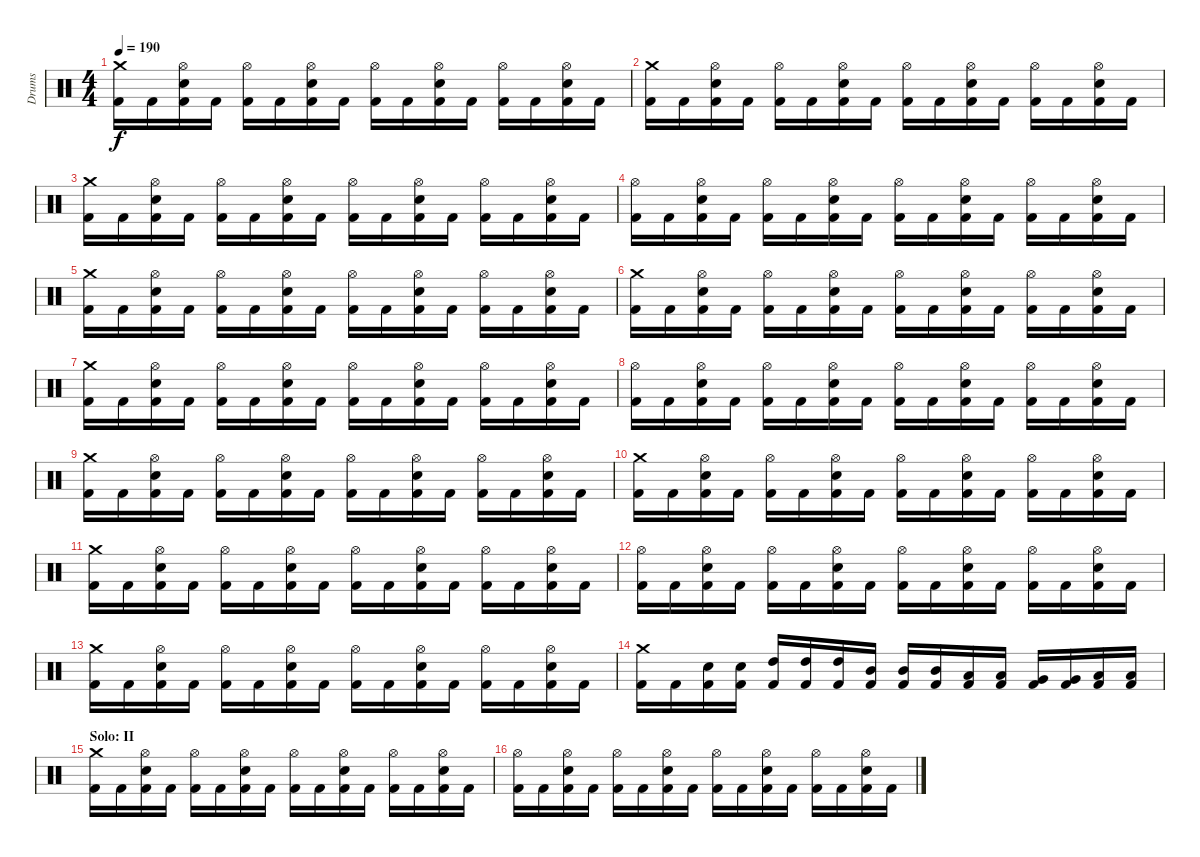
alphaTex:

\track ("Drums" "Drums") {instrument percussion}
\staff {score}
\articulation defaults
\ts (4 4)
\tempo 190
\clef neutral
\ks c
("Crash medium (hit)" "Kick (hit) 2").16{dy f} "Kick (hit) 2".16 ("Hi-Hat (open)" "Snare (hit) 2" "Kick (hit) 2").16 "Kick (hit) 2".16 ("Hi-Hat (open)" "Kick (hit) 2").16 "Kick (hit) 2".16 ("Hi-Hat (open)" "Snare (hit) 2" "Kick (hit) 2").16 "Kick (hit) 2".16 ("Hi-Hat (open)" "Kick (hit) 2").16 "Kick (hit) 2".16 ("Hi-Hat (open)" "Snare (hit) 2" "Kick (hit) 2").16 "Kick (hit) 2".16 ("Hi-Hat (open)" "Kick (hit) 2").16 "Kick (hit) 2".16 ("Hi-Hat (open)" "Snare (hit) 2" "Kick (hit) 2").16 "Kick (hit) 2".16 |
("Crash medium (hit)" "Kick (hit) 2").16 "Kick (hit) 2".16 ("Hi-Hat (open)" "Snare (hit) 2" "Kick (hit) 2").16 "Kick (hit) 2".16 ("Hi-Hat (open)" "Kick (hit) 2").16 "Kick (hit) 2".16 ("Hi-Hat (open)" "Snare (hit) 2" "Kick (hit) 2").16 "Kick (hit) 2".16 ("Hi-Hat (open)" "Kick (hit) 2").16 "Kick (hit) 2".16 ("Hi-Hat (open)" "Snare (hit) 2" "Kick (hit) 2").16 "Kick (hit) 2".16 ("Hi-Hat (open)" "Kick (hit) 2").16 "Kick (hit) 2".16 ("Hi-Hat (open)" "Snare (hit) 2" "Kick (hit) 2").16 "Kick (hit) 2".16 |
("Crash medium (hit)" "Kick (hit) 2").16 "Kick (hit) 2".16 ("Hi-Hat (open)" "Snare (hit) 2" "Kick (hit) 2").16 "Kick (hit) 2".16 ("Hi-Hat (open)" "Kick (hit) 2").16 "Kick (hit) 2".16 ("Hi-Hat (open)" "Snare (hit) 2" "Kick (hit) 2").16 "Kick (hit) 2".16 ("Hi-Hat (open)" "Kick (hit) 2").16 "Kick (hit) 2".16 ("Hi-Hat (open)" "Snare (hit) 2" "Kick (hit) 2").16 "Kick (hit) 2".16 ("Hi-Hat (open)" "Kick (hit) 2").16 "Kick (hit) 2".16 ("Hi-Hat (open)" "Snare (hit) 2" "Kick (hit) 2").16 "Kick (hit) 2".16 |
("Hi-Hat (open)" "Kick (hit) 2").16 "Kick (hit) 2".16 ("Hi-Hat (open)" "Snare (hit) 2" "Kick (hit) 2").16 "Kick (hit) 2".16 ("Hi-Hat (open)" "Kick (hit) 2").16 "Kick (hit) 2".16 ("Hi-Hat (open)" "Snare (hit) 2" "Kick (hit) 2").16 "Kick (hit) 2".16 ("Hi-Hat (open)" "Kick (hit) 2").16 "Kick (hit) 2".16 ("Hi-Hat (open)" "Snare (hit) 2" "Kick (hit) 2").16 "Kick (hit) 2".16 ("Hi-Hat (open)" "Kick (hit) 2").16 "Kick (hit) 2".16 ("Hi-Hat (open)" "Snare (hit) 2" "Kick (hit) 2").16 "Kick (hit) 2".16 |
("Crash medium (hit)" "Kick (hit) 2").16 "Kick (hit) 2".16 ("Hi-Hat (open)" "Snare (hit) 2" "Kick (hit) 2").16 "Kick (hit) 2".16 ("Hi-Hat (open)" "Kick (hit) 2").16 "Kick (hit) 2".16 ("Hi-Hat (open)" "Snare (hit) 2" "Kick (hit) 2").16 "Kick (hit) 2".16 ("Hi-Hat (open)" "Kick (hit) 2").16 "Kick (hit) 2".16 ("Hi-Hat (open)" "Snare (hit) 2" "Kick (hit) 2").16 "Kick (hit) 2".16 ("Hi-Hat (open)" "Kick (hit) 2").16 "Kick (hit) 2".16 ("Hi-Hat (open)" "Snare (hit) 2" "Kick (hit) 2").16 "Kick (hit) 2".16 |
("Crash medium (hit)" "Kick (hit) 2").16 "Kick (hit) 2".16 ("Hi-Hat (open)" "Snare (hit) 2" "Kick (hit) 2").16 "Kick (hit) 2".16 ("Hi-Hat (open)" "Kick (hit) 2").16 "Kick (hit) 2".16 ("Hi-Hat (open)" "Snare (hit) 2" "Kick (hit) 2").16 "Kick (hit) 2".16 ("Hi-Hat (open)" "Kick (hit) 2").16 "Kick (hit) 2".16 ("Hi-Hat (open)" "Snare (hit) 2" "Kick (hit) 2").16 "Kick (hit) 2".16 ("Hi-Hat (open)" "Kick (hit) 2").16 "Kick (hit) 2".16 ("Hi-Hat (open)" "Snare (hit) 2" "Kick (hit) 2").16 "Kick (hit) 2".16 |
("Crash medium (hit)" "Kick (hit) 2").16 "Kick (hit) 2".16 ("Hi-Hat (open)" "Snare (hit) 2" "Kick (hit) 2").16 "Kick (hit) 2".16 ("Hi-Hat (open)" "Kick (hit) 2").16 "Kick (hit) 2".16 ("Hi-Hat (open)" "Snare (hit) 2" "Kick (hit) 2").16 "Kick (hit) 2".16 ("Hi-Hat (open)" "Kick (hit) 2").16 "Kick (hit) 2".16 ("Hi-Hat (open)" "Snare (hit) 2" "Kick (hit) 2").16 "Kick (hit) 2".16 ("Hi-Hat (open)" "Kick (hit) 2").16 "Kick (hit) 2".16 ("Hi-Hat (open)" "Snare (hit) 2" "Kick (hit) 2").16 "Kick (hit) 2".16 |
("Hi-Hat (open)" "Kick (hit) 2").16 "Kick (hit) 2".16 ("Hi-Hat (open)" "Snare (hit) 2" "Kick (hit) 2").16 "Kick (hit) 2".16 ("Hi-Hat (open)" "Kick (hit) 2").16 "Kick (hit) 2".16 ("Hi-Hat (open)" "Snare (hit) 2" "Kick (hit) 2").16 "Kick (hit) 2".16 ("Hi-Hat (open)" "Kick (hit) 2").16 "Kick (hit) 2".16 ("Hi-Hat (open)" "Snare (hit) 2" "Kick (hit) 2").16 "Kick (hit) 2".16 ("Hi-Hat (open)" "Kick (hit) 2").16 "Kick (hit) 2".16 ("Hi-Hat (open)" "Snare (hit) 2" "Kick (hit) 2").16 "Kick (hit) 2".16 |
("Crash medium (hit)" "Kick (hit) 2").16 "Kick (hit) 2".16 ("Hi-Hat (open)" "Snare (hit) 2" "Kick (hit) 2").16 "Kick (hit) 2".16 ("Hi-Hat (open)" "Kick (hit) 2").16 "Kick (hit) 2".16 ("Hi-Hat (open)" "Snare (hit) 2" "Kick (hit) 2").16 "Kick (hit) 2".16 ("Hi-Hat (open)" "Kick (hit) 2").16 "Kick (hit) 2".16 ("Hi-Hat (open)" "Snare (hit) 2" "Kick (hit) 2").16 "Kick (hit) 2".16 ("Hi-Hat (open)" "Kick (hit) 2").16 "Kick (hit) 2".16 ("Hi-Hat (open)" "Snare (hit) 2" "Kick (hit) 2").16 "Kick (hit) 2".16 |
("Crash medium (hit)" "Kick (hit) 2").16 "Kick (hit) 2".16 ("Hi-Hat (open)" "Snare (hit) 2" "Kick (hit) 2").16 "Kick (hit) 2".16 ("Hi-Hat (open)" "Kick (hit) 2").16 "Kick (hit) 2".16 ("Hi-Hat (open)" "Snare (hit) 2" "Kick (hit) 2").16 "Kick (hit) 2".16 ("Hi-Hat (open)" "Kick (hit) 2").16 "Kick (hit) 2".16 ("Hi-Hat (open)" "Snare (hit) 2" "Kick (hit) 2").16 "Kick (hit) 2".16 ("Hi-Hat (open)" "Kick (hit) 2").16 "Kick (hit) 2".16 ("Hi-Hat (open)" "Snare (hit) 2" "Kick (hit) 2").16 "Kick (hit) 2".16 |
("Crash medium (hit)" "Kick (hit) 2").16 "Kick (hit) 2".16 ("Hi-Hat (open)" "Snare (hit) 2" "Kick (hit) 2").16 "Kick (hit) 2".16 ("Hi-Hat (open)" "Kick (hit) 2").16 "Kick (hit) 2".16 ("Hi-Hat (open)" "Snare (hit) 2" "Kick (hit) 2").16 "Kick (hit) 2".16 ("Hi-Hat (open)" "Kick (hit) 2").16 "Kick (hit) 2".16 ("Hi-Hat (open)" "Snare (hit) 2" "Kick (hit) 2").16 "Kick (hit) 2".16 ("Hi-Hat (open)" "Kick (hit) 2").16 "Kick (hit) 2".16 ("Hi-Hat (open)" "Snare (hit) 2" "Kick (hit) 2").16 "Kick (hit) 2".16 |
("Hi-Hat (open)" "Kick (hit) 2").16 "Kick (hit) 2".16 ("Hi-Hat (open)" "Snare (hit) 2" "Kick (hit) 2").16 "Kick (hit) 2".16 ("Hi-Hat (open)" "Kick (hit) 2").16 "Kick (hit) 2".16 ("Hi-Hat (open)" "Snare (hit) 2" "Kick (hit) 2").16 "Kick (hit) 2".16 ("Hi-Hat (open)" "Kick (hit) 2").16 "Kick (hit) 2".16 ("Hi-Hat (open)" "Snare (hit) 2" "Kick (hit) 2").16 "Kick (hit) 2".16 ("Hi-Hat (open)" "Kick (hit) 2").16 "Kick (hit) 2".16 ("Hi-Hat (open)" "Snare (hit) 2" "Kick (hit) 2").16 "Kick (hit) 2".16 |
("Crash medium (hit)" "Kick (hit) 2").16 "Kick (hit) 2".16 ("Hi-Hat (open)" "Snare (hit) 2" "Kick (hit) 2").16 "Kick (hit) 2".16 ("Hi-Hat (open)" "Kick (hit) 2").16 "Kick (hit) 2".16 ("Hi-Hat (open)" "Snare (hit) 2" "Kick (hit) 2").16 "Kick (hit) 2".16 ("Hi-Hat (open)" "Kick (hit) 2").16 "Kick (hit) 2".16 ("Hi-Hat (open)" "Snare (hit) 2" "Kick (hit) 2").16 "Kick (hit) 2".16 ("Hi-Hat (open)" "Kick (hit) 2").16 "Kick (hit) 2".16 ("Hi-Hat (open)" "Snare (hit) 2" "Kick (hit) 2").16 "Kick (hit) 2".16 |
("Crash medium (hit)" "Kick (hit) 2").16 "Kick (hit) 2".16 ("Snare (hit) 2" "Kick (hit) 2").16 ("Snare (hit) 2" "Kick (hit) 2").16 ("High Tom (hit)" "Kick (hit) 2").16 ("High Tom (hit)" "Kick (hit) 2").16 ("High Tom (hit)" "Kick (hit) 2").16 ("Mid Tom (hit)" "Kick (hit) 2").16 ("Mid Tom (hit)" "Kick (hit) 2").16 ("Mid Tom (hit)" "Kick (hit) 2").16 ("Low Tom (hit)" "Kick (hit) 2").16 ("Low Tom (hit)" "Kick (hit) 2").16 ("Very Low Tom (hit)" "Kick (hit) 2").16 ("Very Low Tom (hit)" "Kick (hit) 2").16 ("Low Floor Tom (hit)" "Kick (hit) 2").16 ("Low Floor Tom (hit)" "Kick (hit) 2").16 |
\section ("" "Solo: II")
("Crash medium (hit)" "Kick (hit) 2").16 "Kick (hit) 2".16 ("Hi-Hat (open)" "Snare (hit) 2" "Kick (hit) 2").16 "Kick (hit) 2".16 ("Hi-Hat (open)" "Kick (hit) 2").16 "Kick (hit) 2".16 ("Hi-Hat (open)" "Snare (hit) 2" "Kick (hit) 2").16 "Kick (hit) 2".16 ("Hi-Hat (open)" "Kick (hit) 2").16 "Kick (hit) 2".16 ("Hi-Hat (open)" "Snare (hit) 2" "Kick (hit) 2").16 "Kick (hit) 2".16 ("Hi-Hat (open)" "Kick (hit) 2").16 "Kick (hit) 2".16 ("Hi-Hat (open)" "Snare (hit) 2" "Kick (hit) 2").16 "Kick (hit) 2".16 |
("Hi-Hat (open)" "Kick (hit) 2").16 "Kick (hit) 2".16 ("Hi-Hat (open)" "Snare (hit) 2" "Kick (hit) 2").16 "Kick (hit) 2".16 ("Hi-Hat (open)" "Kick (hit) 2").16 "Kick (hit) 2".16 ("Hi-Hat (open)" "Snare (hit) 2" "Kick (hit) 2").16 "Kick (hit) 2".16 ("Hi-Hat (open)" "Kick (hit) 2").16 "Kick (hit) 2".16 ("Hi-Hat (open)" "Snare (hit) 2" "Kick (hit) 2").16 "Kick (hit) 2".16 ("Hi-Hat (open)" "Kick (hit) 2").16 "Kick (hit) 2".16 ("Hi-Hat (open)" "Snare (hit) 2" "Kick (hit) 2").16 "Kick (hit) 2".16
